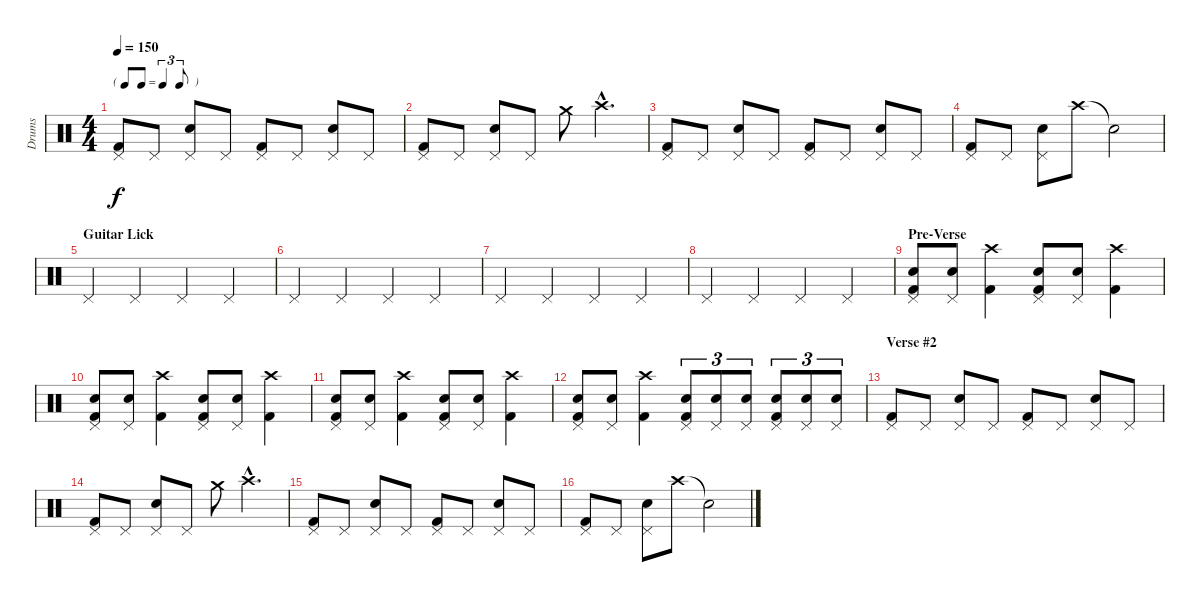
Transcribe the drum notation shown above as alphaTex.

\track ("Drums" "Drums") {instrument percussion}
\staff {score}
\articulation defaults
\ts (4 4)
\tf triplet8th
\tempo 150
\clef neutral
\ks c
("Pedal Hi-Hat (hit)" "Kick (hit) 2").8{dy f} "Pedal Hi-Hat (hit)".8 ("Pedal Hi-Hat (hit)" "Snare (hit) 2").8 "Pedal Hi-Hat (hit)".8 ("Pedal Hi-Hat (hit)" "Kick (hit) 2").8 "Pedal Hi-Hat (hit)".8 ("Pedal Hi-Hat (hit)" "Snare (hit) 2").8 "Pedal Hi-Hat (hit)".8 |
("Pedal Hi-Hat (hit)" "Kick (hit) 2").8 "Pedal Hi-Hat (hit)".8 ("Pedal Hi-Hat (hit)" "Snare (hit) 2").8 "Pedal Hi-Hat (hit)".8 "Crash medium (hit)".8 "Crash high (hit)"{hac}.4{d} |
("Pedal Hi-Hat (hit)" "Kick (hit) 2").8 "Pedal Hi-Hat (hit)".8 ("Pedal Hi-Hat (hit)" "Snare (hit) 2").8 "Pedal Hi-Hat (hit)".8 ("Pedal Hi-Hat (hit)" "Kick (hit) 2").8 "Pedal Hi-Hat (hit)".8 ("Pedal Hi-Hat (hit)" "Snare (hit) 2").8 "Pedal Hi-Hat (hit)".8 |
("Pedal Hi-Hat (hit)" "Kick (hit) 2").8 "Pedal Hi-Hat (hit)".8 ("Pedal Hi-Hat (hit)" "Snare (hit) 2").8 "Crash high (hit)".8 "Snare (hit)"{t}.2 |
\section ("" "Guitar Lick")
"Pedal Hi-Hat (hit)".4 "Pedal Hi-Hat (hit)".4 "Pedal Hi-Hat (hit)".4 "Pedal Hi-Hat (hit)".4 |
"Pedal Hi-Hat (hit)".4 "Pedal Hi-Hat (hit)".4 "Pedal Hi-Hat (hit)".4 "Pedal Hi-Hat (hit)".4 |
"Pedal Hi-Hat (hit)".4 "Pedal Hi-Hat (hit)".4 "Pedal Hi-Hat (hit)".4 "Pedal Hi-Hat (hit)".4 |
"Pedal Hi-Hat (hit)".4 "Pedal Hi-Hat (hit)".4 "Pedal Hi-Hat (hit)".4 "Pedal Hi-Hat (hit)".4 |
\section ("" "Pre-Verse")
("Pedal Hi-Hat (hit)" "Snare (hit) 2" "Kick (hit) 2").8 ("Pedal Hi-Hat (hit)" "Snare (hit) 2").8 ("Crash high (hit)" "Kick (hit) 2").4 ("Pedal Hi-Hat (hit)" "Snare (hit) 2" "Kick (hit) 2").8 ("Pedal Hi-Hat (hit)" "Snare (hit) 2").8 ("Crash high (hit)" "Kick (hit) 2").4 |
("Pedal Hi-Hat (hit)" "Snare (hit) 2" "Kick (hit) 2").8 ("Pedal Hi-Hat (hit)" "Snare (hit) 2").8 ("Crash high (hit)" "Kick (hit) 2").4 ("Pedal Hi-Hat (hit)" "Snare (hit) 2" "Kick (hit) 2").8 ("Pedal Hi-Hat (hit)" "Snare (hit) 2").8 ("Crash high (hit)" "Kick (hit) 2").4 |
("Pedal Hi-Hat (hit)" "Snare (hit) 2" "Kick (hit) 2").8 ("Pedal Hi-Hat (hit)" "Snare (hit) 2").8 ("Crash high (hit)" "Kick (hit) 2").4 ("Pedal Hi-Hat (hit)" "Snare (hit) 2" "Kick (hit) 2").8 ("Pedal Hi-Hat (hit)" "Snare (hit) 2").8 ("Crash high (hit)" "Kick (hit) 2").4 |
("Pedal Hi-Hat (hit)" "Snare (hit) 2" "Kick (hit) 2").8 ("Pedal Hi-Hat (hit)" "Snare (hit) 2").8 ("Crash high (hit)" "Kick (hit) 2").4 ("Pedal Hi-Hat (hit)" "Snare (hit) 2" "Kick (hit) 2").8{tu (3 2)} ("Pedal Hi-Hat (hit)" "Electric Snare (hit)").8{tu (3 2)} ("Pedal Hi-Hat (hit)" "Snare (hit) 2").8{tu (3 2)} ("Pedal Hi-Hat (hit)" "Snare (hit) 2" "Kick (hit) 2").8{tu (3 2)} ("Pedal Hi-Hat (hit)" "Electric Snare (hit)").8{tu (3 2)} ("Pedal Hi-Hat (hit)" "Snare (hit) 2").8{tu (3 2)} |
\section ("" "Verse #2")
("Pedal Hi-Hat (hit)" "Kick (hit) 2").8 "Pedal Hi-Hat (hit)".8 ("Pedal Hi-Hat (hit)" "Snare (hit) 2").8 "Pedal Hi-Hat (hit)".8 ("Pedal Hi-Hat (hit)" "Kick (hit) 2").8 "Pedal Hi-Hat (hit)".8 ("Pedal Hi-Hat (hit)" "Snare (hit) 2").8 "Pedal Hi-Hat (hit)".8 |
("Pedal Hi-Hat (hit)" "Kick (hit) 2").8 "Pedal Hi-Hat (hit)".8 ("Pedal Hi-Hat (hit)" "Snare (hit) 2").8 "Pedal Hi-Hat (hit)".8 "Crash medium (hit)".8 "Crash high (hit)"{hac}.4{d} |
("Pedal Hi-Hat (hit)" "Kick (hit) 2").8 "Pedal Hi-Hat (hit)".8 ("Pedal Hi-Hat (hit)" "Snare (hit) 2").8 "Pedal Hi-Hat (hit)".8 ("Pedal Hi-Hat (hit)" "Kick (hit) 2").8 "Pedal Hi-Hat (hit)".8 ("Pedal Hi-Hat (hit)" "Snare (hit) 2").8 "Pedal Hi-Hat (hit)".8 |
("Pedal Hi-Hat (hit)" "Kick (hit) 2").8 "Pedal Hi-Hat (hit)".8 ("Pedal Hi-Hat (hit)" "Snare (hit) 2").8 "Crash high (hit)".8 "Snare (hit)"{t}.2
